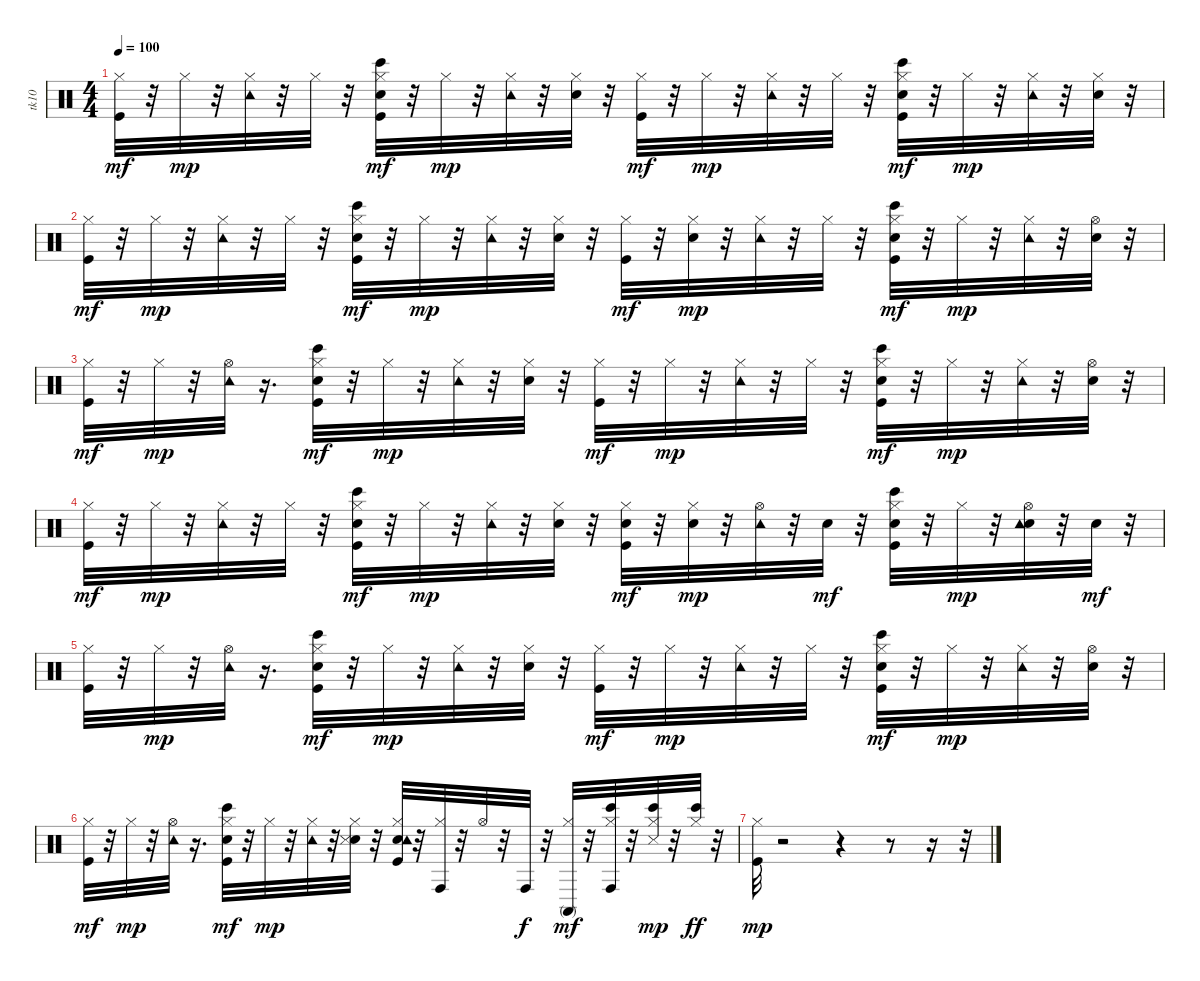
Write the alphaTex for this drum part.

\track ("tk10" "tk10") {instrument percussion}
\staff {score}
\articulation defaults
\ts (4 4)
\tempo 100
\clef neutral
\ks c
("Kick (hit)" "Hi-Hat (closed)").32{dy mf} r.32 "Hi-Hat (closed)".32{dy mp} r.32 ("Hi-Hat (closed)" "Tambourine (hit)").32 r.32 "Hi-Hat (closed)".32 r.32 ("Kick (hit)" "Snare (hit) 2" "Hi-Hat (closed)" "Bongo High (hit)").32{dy mf} r.32 "Hi-Hat (closed)".32{dy mp} r.32 ("Hi-Hat (closed)" "Tambourine (hit)").32 r.32 ("Snare (hit) 2" "Hi-Hat (closed)").32 r.32 ("Kick (hit)" "Hi-Hat (closed)").32{dy mf} r.32 "Hi-Hat (closed)".32{dy mp} r.32 ("Hi-Hat (closed)" "Tambourine (hit)").32 r.32 "Hi-Hat (closed)".32 r.32 ("Kick (hit)" "Snare (hit) 2" "Hi-Hat (closed)" "Bongo High (hit)").32{dy mf} r.32 "Hi-Hat (closed)".32{dy mp} r.32 ("Hi-Hat (closed)" "Tambourine (hit)").32 r.32 ("Snare (hit) 2" "Hi-Hat (closed)").32 r.32 |
("Kick (hit)" "Hi-Hat (closed)").32{dy mf} r.32 "Hi-Hat (closed)".32{dy mp} r.32 ("Hi-Hat (closed)" "Tambourine (hit)").32 r.32 "Hi-Hat (closed)".32 r.32 ("Kick (hit)" "Snare (hit) 2" "Hi-Hat (closed)" "Bongo High (hit)").32{dy mf} r.32 "Hi-Hat (closed)".32{dy mp} r.32 ("Hi-Hat (closed)" "Tambourine (hit)").32 r.32 ("Snare (hit) 2" "Hi-Hat (closed)").32 r.32 ("Kick (hit)" "Hi-Hat (closed)").32{dy mf} r.32 ("Snare (hit) 2" "Hi-Hat (closed)").32{dy mp} r.32 ("Hi-Hat (closed)" "Tambourine (hit)").32 r.32 "Hi-Hat (closed)".32 r.32 ("Kick (hit)" "Snare (hit) 2" "Hi-Hat (closed)" "Bongo High (hit)").32{dy mf} r.32 "Hi-Hat (closed)".32{dy mp} r.32 ("Hi-Hat (closed)" "Tambourine (hit)").32 r.32 ("Snare (hit) 2" "Hi-Hat (open)").32 r.32 |
("Kick (hit)" "Hi-Hat (closed)").32{dy mf} r.32 "Hi-Hat (closed)".32{dy mp} r.32 ("Hi-Hat (open)" "Tambourine (hit)").32 r.16{d} ("Kick (hit)" "Snare (hit) 2" "Hi-Hat (closed)" "Bongo High (hit)").32{dy mf} r.32 "Hi-Hat (closed)".32{dy mp} r.32 ("Hi-Hat (closed)" "Tambourine (hit)").32 r.32 ("Snare (hit) 2" "Hi-Hat (closed)").32 r.32 ("Kick (hit)" "Hi-Hat (closed)").32{dy mf} r.32 "Hi-Hat (closed)".32{dy mp} r.32 ("Hi-Hat (closed)" "Tambourine (hit)").32 r.32 "Hi-Hat (closed)".32 r.32 ("Kick (hit)" "Snare (hit) 2" "Hi-Hat (closed)" "Bongo High (hit)").32{dy mf} r.32 "Hi-Hat (closed)".32{dy mp} r.32 ("Hi-Hat (closed)" "Tambourine (hit)").32 r.32 ("Snare (hit) 2" "Hi-Hat (open)").32 r.32 |
("Kick (hit)" "Hi-Hat (closed)").32{dy mf} r.32 "Hi-Hat (closed)".32{dy mp} r.32 ("Hi-Hat (closed)" "Tambourine (hit)").32 r.32 "Hi-Hat (closed)".32 r.32 ("Kick (hit)" "Snare (hit) 2" "Hi-Hat (closed)" "Bongo High (hit)").32{dy mf} r.32 "Hi-Hat (closed)".32{dy mp} r.32 ("Hi-Hat (closed)" "Tambourine (hit)").32 r.32 ("Snare (hit) 2" "Hi-Hat (closed)").32 r.32 ("Kick (hit)" "Snare (hit) 2" "Hi-Hat (closed)").32{dy mf} r.32 ("Snare (hit) 2" "Hi-Hat (closed)").32{dy mp} r.32 ("Hi-Hat (open)" "Tambourine (hit)").32 r.32 "Snare (hit) 2".32{dy mf} r.32 ("Kick (hit)" "Snare (hit) 2" "Hi-Hat (closed)" "Bongo High (hit)").32 r.32 "Hi-Hat (closed)".32{dy mp} r.32 ("Snare (hit) 2" "Hi-Hat (open)" "Tambourine (hit)").32 r.32 "Snare (hit) 2".32{dy mf} r.32 |
("Kick (hit)" "Hi-Hat (closed)").32 r.32 "Hi-Hat (closed)".32{dy mp} r.32 ("Hi-Hat (open)" "Tambourine (hit)").32 r.16{d} ("Kick (hit)" "Snare (hit) 2" "Hi-Hat (closed)" "Bongo High (hit)").32{dy mf} r.32 "Hi-Hat (closed)".32{dy mp} r.32 ("Hi-Hat (closed)" "Tambourine (hit)").32 r.32 ("Snare (hit) 2" "Hi-Hat (closed)").32 r.32 ("Kick (hit)" "Hi-Hat (closed)").32{dy mf} r.32 "Hi-Hat (closed)".32{dy mp} r.32 ("Hi-Hat (closed)" "Tambourine (hit)").32 r.32 "Hi-Hat (closed)".32 r.32 ("Kick (hit)" "Snare (hit) 2" "Hi-Hat (closed)" "Bongo High (hit)").32{dy mf} r.32 "Hi-Hat (closed)".32{dy mp} r.32 ("Hi-Hat (closed)" "Tambourine (hit)").32 r.32 ("Snare (hit) 2" "Hi-Hat (open)").32 r.32 |
("Kick (hit)" "Hi-Hat (closed)").32{dy mf} r.32 "Hi-Hat (closed)".32{dy mp} r.32 ("Hi-Hat (open)" "Tambourine (hit)").32 r.16{d} ("Kick (hit)" "Snare (hit) 2" "Hi-Hat (closed)" "Bongo High (hit)").32{dy mf} r.32 "Hi-Hat (closed)".32{dy mp} r.32 ("Hi-Hat (closed)" "Tambourine (hit)").32 r.32 ("Snare (hit) 2" "Snare (side stick) 3" "Hi-Hat (closed)").32 r.32 ("Kick (hit)" "Snare (hit) 2" "Hi-Hat (closed)" "Tambourine (hit)").32 r.32 ("Hi-Hat (closed)" "Conga high (hit)").32 r.32 "Hi-Hat (open)".32 r.32 "Conga high (hit)".32{dy f} r.32 ("Hi-Hat (closed)" "Conga high (mute)").32{dy mf} r.32 ("Hi-Hat (closed)" "Bongo High (hit)" "Conga high (hit)").32 r.32 ("Snare (side stick) 3" "Hi-Hat (closed)" "Bongo High (hit)").32{dy mp} r.32 ("Hi-Hat (closed)" "Bongo High (hit)").32{dy ff} r.32 |
("Kick (hit)" "Hi-Hat (closed)").32{dy mp} r.2 r.4 r.8 r.16 r.32
